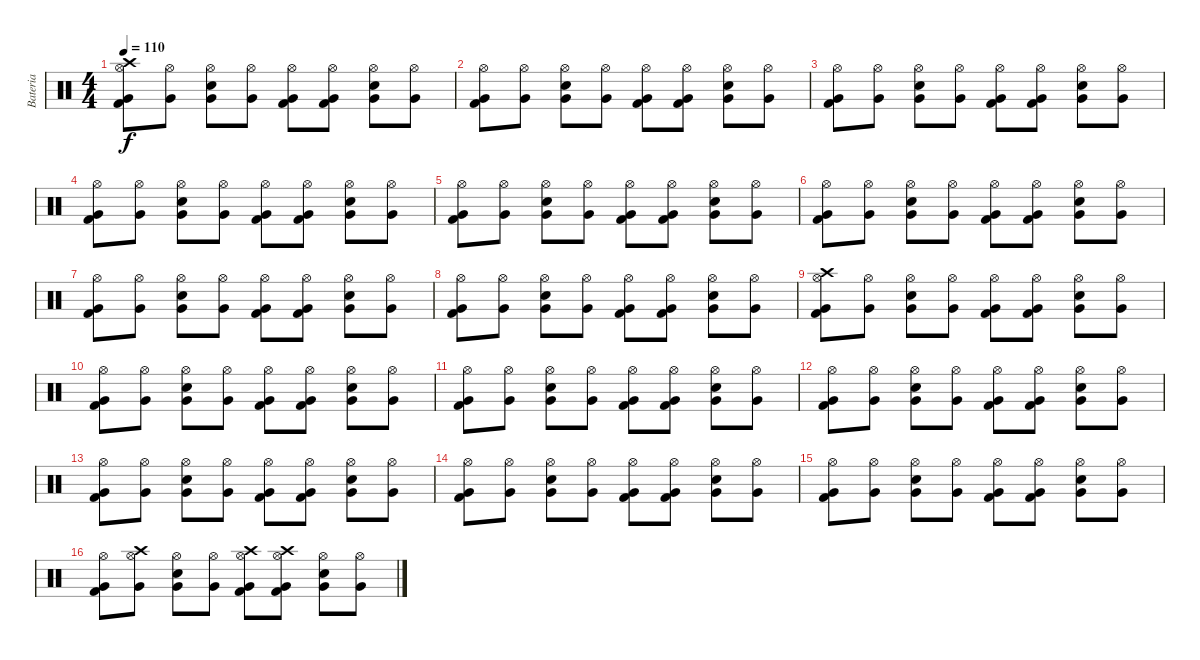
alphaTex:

\track ("Bateria" "Bateria") {instrument percussion}
\staff {score}
\articulation defaults
\ts (4 4)
\tempo 110
\clef neutral
\ks c
("Crash high (hit)" "Hi-Hat (open)" "Very Low Tom (hit)" "Kick (hit) 2").8{dy f} ("Hi-Hat (open)" "Very Low Tom (hit)").8 ("Electric Snare (hit)" "Hi-Hat (open)" "Very Low Tom (hit)").8 ("Hi-Hat (open)" "Very Low Tom (hit)").8 ("Hi-Hat (open)" "Very Low Tom (hit)" "Kick (hit) 2").8 ("Hi-Hat (open)" "Very Low Tom (hit)" "Kick (hit) 2").8 ("Electric Snare (hit)" "Hi-Hat (open)" "Very Low Tom (hit)").8 ("Hi-Hat (open)" "Very Low Tom (hit)").8 |
("Hi-Hat (open)" "Very Low Tom (hit)" "Kick (hit) 2").8 ("Hi-Hat (open)" "Very Low Tom (hit)").8 ("Electric Snare (hit)" "Hi-Hat (open)" "Very Low Tom (hit)").8 ("Hi-Hat (open)" "Very Low Tom (hit)").8 ("Hi-Hat (open)" "Very Low Tom (hit)" "Kick (hit) 2").8 ("Hi-Hat (open)" "Very Low Tom (hit)" "Kick (hit) 2").8 ("Electric Snare (hit)" "Hi-Hat (open)" "Very Low Tom (hit)").8 ("Hi-Hat (open)" "Very Low Tom (hit)").8 |
("Hi-Hat (open)" "Very Low Tom (hit)" "Kick (hit) 2").8 ("Hi-Hat (open)" "Very Low Tom (hit)").8 ("Electric Snare (hit)" "Hi-Hat (open)" "Very Low Tom (hit)").8 ("Hi-Hat (open)" "Very Low Tom (hit)").8 ("Hi-Hat (open)" "Very Low Tom (hit)" "Kick (hit) 2").8 ("Hi-Hat (open)" "Very Low Tom (hit)" "Kick (hit) 2").8 ("Electric Snare (hit)" "Hi-Hat (open)" "Very Low Tom (hit)").8 ("Hi-Hat (open)" "Very Low Tom (hit)").8 |
("Hi-Hat (open)" "Very Low Tom (hit)" "Kick (hit) 2").8 ("Hi-Hat (open)" "Very Low Tom (hit)").8 ("Electric Snare (hit)" "Hi-Hat (open)" "Very Low Tom (hit)").8 ("Hi-Hat (open)" "Very Low Tom (hit)").8 ("Hi-Hat (open)" "Very Low Tom (hit)" "Kick (hit) 2").8 ("Hi-Hat (open)" "Very Low Tom (hit)" "Kick (hit) 2").8 ("Electric Snare (hit)" "Hi-Hat (open)" "Very Low Tom (hit)").8 ("Hi-Hat (open)" "Very Low Tom (hit)").8 |
("Hi-Hat (open)" "Very Low Tom (hit)" "Kick (hit) 2").8 ("Hi-Hat (open)" "Very Low Tom (hit)").8 ("Electric Snare (hit)" "Hi-Hat (open)" "Very Low Tom (hit)").8 ("Hi-Hat (open)" "Very Low Tom (hit)").8 ("Hi-Hat (open)" "Very Low Tom (hit)" "Kick (hit) 2").8 ("Hi-Hat (open)" "Very Low Tom (hit)" "Kick (hit) 2").8 ("Electric Snare (hit)" "Hi-Hat (open)" "Very Low Tom (hit)").8 ("Hi-Hat (open)" "Very Low Tom (hit)").8 |
("Hi-Hat (open)" "Very Low Tom (hit)" "Kick (hit) 2").8 ("Hi-Hat (open)" "Very Low Tom (hit)").8 ("Electric Snare (hit)" "Hi-Hat (open)" "Very Low Tom (hit)").8 ("Hi-Hat (open)" "Very Low Tom (hit)").8 ("Hi-Hat (open)" "Very Low Tom (hit)" "Kick (hit) 2").8 ("Hi-Hat (open)" "Very Low Tom (hit)" "Kick (hit) 2").8 ("Electric Snare (hit)" "Hi-Hat (open)" "Very Low Tom (hit)").8 ("Hi-Hat (open)" "Very Low Tom (hit)").8 |
("Hi-Hat (open)" "Very Low Tom (hit)" "Kick (hit) 2").8 ("Hi-Hat (open)" "Very Low Tom (hit)").8 ("Electric Snare (hit)" "Hi-Hat (open)" "Very Low Tom (hit)").8 ("Hi-Hat (open)" "Very Low Tom (hit)").8 ("Hi-Hat (open)" "Very Low Tom (hit)" "Kick (hit) 2").8 ("Hi-Hat (open)" "Very Low Tom (hit)" "Kick (hit) 2").8 ("Electric Snare (hit)" "Hi-Hat (open)" "Very Low Tom (hit)").8 ("Hi-Hat (open)" "Very Low Tom (hit)").8 |
("Hi-Hat (open)" "Very Low Tom (hit)" "Kick (hit) 2").8 ("Hi-Hat (open)" "Very Low Tom (hit)").8 ("Electric Snare (hit)" "Hi-Hat (open)" "Very Low Tom (hit)").8 ("Hi-Hat (open)" "Very Low Tom (hit)").8 ("Hi-Hat (open)" "Very Low Tom (hit)" "Kick (hit) 2").8 ("Hi-Hat (open)" "Very Low Tom (hit)" "Kick (hit) 2").8 ("Electric Snare (hit)" "Hi-Hat (open)" "Very Low Tom (hit)").8 ("Hi-Hat (open)" "Very Low Tom (hit)").8 |
("Crash high (hit)" "Hi-Hat (open)" "Very Low Tom (hit)" "Kick (hit) 2").8 ("Hi-Hat (open)" "Very Low Tom (hit)").8 ("Electric Snare (hit)" "Hi-Hat (open)" "Very Low Tom (hit)").8 ("Hi-Hat (open)" "Very Low Tom (hit)").8 ("Hi-Hat (open)" "Very Low Tom (hit)" "Kick (hit) 2").8 ("Hi-Hat (open)" "Very Low Tom (hit)" "Kick (hit) 2").8 ("Electric Snare (hit)" "Hi-Hat (open)" "Very Low Tom (hit)").8 ("Hi-Hat (open)" "Very Low Tom (hit)").8 |
("Hi-Hat (open)" "Very Low Tom (hit)" "Kick (hit) 2").8 ("Hi-Hat (open)" "Very Low Tom (hit)").8 ("Electric Snare (hit)" "Hi-Hat (open)" "Very Low Tom (hit)").8 ("Hi-Hat (open)" "Very Low Tom (hit)").8 ("Hi-Hat (open)" "Very Low Tom (hit)" "Kick (hit) 2").8 ("Hi-Hat (open)" "Very Low Tom (hit)" "Kick (hit) 2").8 ("Electric Snare (hit)" "Hi-Hat (open)" "Very Low Tom (hit)").8 ("Hi-Hat (open)" "Very Low Tom (hit)").8 |
("Hi-Hat (open)" "Very Low Tom (hit)" "Kick (hit) 2").8 ("Hi-Hat (open)" "Very Low Tom (hit)").8 ("Electric Snare (hit)" "Hi-Hat (open)" "Very Low Tom (hit)").8 ("Hi-Hat (open)" "Very Low Tom (hit)").8 ("Hi-Hat (open)" "Very Low Tom (hit)" "Kick (hit) 2").8 ("Hi-Hat (open)" "Very Low Tom (hit)" "Kick (hit) 2").8 ("Electric Snare (hit)" "Hi-Hat (open)" "Very Low Tom (hit)").8 ("Hi-Hat (open)" "Very Low Tom (hit)").8 |
("Hi-Hat (open)" "Very Low Tom (hit)" "Kick (hit) 2").8 ("Hi-Hat (open)" "Very Low Tom (hit)").8 ("Electric Snare (hit)" "Hi-Hat (open)" "Very Low Tom (hit)").8 ("Hi-Hat (open)" "Very Low Tom (hit)").8 ("Hi-Hat (open)" "Very Low Tom (hit)" "Kick (hit) 2").8 ("Hi-Hat (open)" "Very Low Tom (hit)" "Kick (hit) 2").8 ("Electric Snare (hit)" "Hi-Hat (open)" "Very Low Tom (hit)").8 ("Hi-Hat (open)" "Very Low Tom (hit)").8 |
("Hi-Hat (open)" "Very Low Tom (hit)" "Kick (hit) 2").8 ("Hi-Hat (open)" "Very Low Tom (hit)").8 ("Electric Snare (hit)" "Hi-Hat (open)" "Very Low Tom (hit)").8 ("Hi-Hat (open)" "Very Low Tom (hit)").8 ("Hi-Hat (open)" "Very Low Tom (hit)" "Kick (hit) 2").8 ("Hi-Hat (open)" "Very Low Tom (hit)" "Kick (hit) 2").8 ("Electric Snare (hit)" "Hi-Hat (open)" "Very Low Tom (hit)").8 ("Hi-Hat (open)" "Very Low Tom (hit)").8 |
("Hi-Hat (open)" "Very Low Tom (hit)" "Kick (hit) 2").8 ("Hi-Hat (open)" "Very Low Tom (hit)").8 ("Electric Snare (hit)" "Hi-Hat (open)" "Very Low Tom (hit)").8 ("Hi-Hat (open)" "Very Low Tom (hit)").8 ("Hi-Hat (open)" "Very Low Tom (hit)" "Kick (hit) 2").8 ("Hi-Hat (open)" "Very Low Tom (hit)" "Kick (hit) 2").8 ("Electric Snare (hit)" "Hi-Hat (open)" "Very Low Tom (hit)").8 ("Hi-Hat (open)" "Very Low Tom (hit)").8 |
("Hi-Hat (open)" "Very Low Tom (hit)" "Kick (hit) 2").8 ("Hi-Hat (open)" "Very Low Tom (hit)").8 ("Electric Snare (hit)" "Hi-Hat (open)" "Very Low Tom (hit)").8 ("Hi-Hat (open)" "Very Low Tom (hit)").8 ("Hi-Hat (open)" "Very Low Tom (hit)" "Kick (hit) 2").8 ("Hi-Hat (open)" "Very Low Tom (hit)" "Kick (hit) 2").8 ("Electric Snare (hit)" "Hi-Hat (open)" "Very Low Tom (hit)").8 ("Hi-Hat (open)" "Very Low Tom (hit)").8 |
("Hi-Hat (open)" "Very Low Tom (hit)" "Kick (hit) 2").8 ("Crash high (hit)" "Hi-Hat (open)" "Very Low Tom (hit)").8 ("Electric Snare (hit)" "Hi-Hat (open)" "Very Low Tom (hit)").8 ("Hi-Hat (open)" "Very Low Tom (hit)").8 ("Crash high (hit)" "Hi-Hat (open)" "Very Low Tom (hit)" "Kick (hit) 2").8 ("Crash high (hit)" "Hi-Hat (open)" "Very Low Tom (hit)" "Kick (hit) 2").8 ("Electric Snare (hit)" "Hi-Hat (open)" "Very Low Tom (hit)").8 ("Hi-Hat (open)" "Very Low Tom (hit)").8
